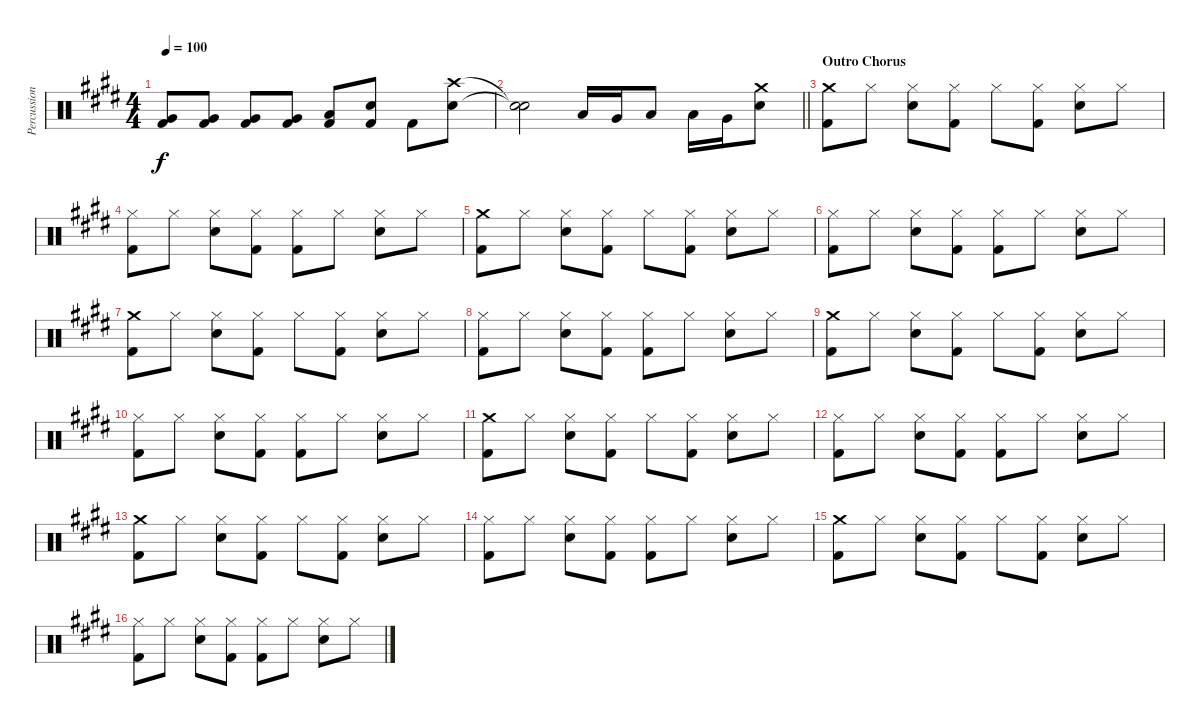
\track ("Percussion" "Percussion") {instrument percussion}
\staff {score}
\articulation defaults
\ts (4 4)
\tempo 100
\clef neutral
\ks c#minor
("Very Low Tom (hit)" "Kick (hit) 2").8{dy f} ("Very Low Tom (hit)" "Kick (hit) 2").8 ("Very Low Tom (hit)" "Kick (hit) 2").8 ("Very Low Tom (hit)" "Kick (hit) 2").8 ("Low Floor Tom (hit)" "Kick (hit) 2").8 ("Snare (hit) 2" "Kick (hit) 2").8 "Kick (hit) 2".8 ("Crash high (hit)" "Snare (hit) 2").8 |
\barLineRight lightlight
("Snare (hit)"{t} "Snare (hit)"{t}).2 "Low Tom (hit)".16 "Very Low Tom (hit)".16 "Low Floor Tom (hit)".8 "Low Tom (hit)".16 "Very Low Tom (hit)".16 ("Crash medium (hit)" "Snare (hit) 2").8 |
\section ("" "Outro Chorus")
("Crash medium (hit)" "Kick (hit) 2").8 "Hi-Hat (closed)".8 ("Hi-Hat (closed)" "Snare (hit) 2").8 ("Hi-Hat (closed)" "Kick (hit) 2").8 "Hi-Hat (closed)".8 ("Hi-Hat (closed)" "Kick (hit) 2").8 ("Hi-Hat (closed)" "Snare (hit) 2").8 "Hi-Hat (closed)".8 |
("Hi-Hat (closed)" "Kick (hit) 2").8 "Hi-Hat (closed)".8 ("Hi-Hat (closed)" "Snare (hit) 2").8 ("Hi-Hat (closed)" "Kick (hit) 2").8 ("Hi-Hat (closed)" "Kick (hit) 2").8 "Hi-Hat (closed)".8 ("Hi-Hat (closed)" "Snare (hit) 2").8 "Hi-Hat (closed)".8 |
("Crash medium (hit)" "Kick (hit) 2").8 "Hi-Hat (closed)".8 ("Hi-Hat (closed)" "Snare (hit) 2").8 ("Hi-Hat (closed)" "Kick (hit) 2").8 "Hi-Hat (closed)".8 ("Hi-Hat (closed)" "Kick (hit) 2").8 ("Hi-Hat (closed)" "Snare (hit) 2").8 "Hi-Hat (closed)".8 |
("Hi-Hat (closed)" "Kick (hit) 2").8 "Hi-Hat (closed)".8 ("Hi-Hat (closed)" "Snare (hit) 2").8 ("Hi-Hat (closed)" "Kick (hit) 2").8 ("Hi-Hat (closed)" "Kick (hit) 2").8 "Hi-Hat (closed)".8 ("Hi-Hat (closed)" "Snare (hit) 2").8 "Hi-Hat (closed)".8 |
("Crash medium (hit)" "Kick (hit) 2").8 "Hi-Hat (closed)".8 ("Hi-Hat (closed)" "Snare (hit) 2").8 ("Hi-Hat (closed)" "Kick (hit) 2").8 "Hi-Hat (closed)".8 ("Hi-Hat (closed)" "Kick (hit) 2").8 ("Hi-Hat (closed)" "Snare (hit) 2").8 "Hi-Hat (closed)".8 |
("Hi-Hat (closed)" "Kick (hit) 2").8 "Hi-Hat (closed)".8 ("Hi-Hat (closed)" "Snare (hit) 2").8 ("Hi-Hat (closed)" "Kick (hit) 2").8 ("Hi-Hat (closed)" "Kick (hit) 2").8 "Hi-Hat (closed)".8 ("Hi-Hat (closed)" "Snare (hit) 2").8 "Hi-Hat (closed)".8 |
("Crash medium (hit)" "Kick (hit) 2").8 "Hi-Hat (closed)".8 ("Hi-Hat (closed)" "Snare (hit) 2").8 ("Hi-Hat (closed)" "Kick (hit) 2").8 "Hi-Hat (closed)".8 ("Hi-Hat (closed)" "Kick (hit) 2").8 ("Hi-Hat (closed)" "Snare (hit) 2").8 "Hi-Hat (closed)".8 |
("Hi-Hat (closed)" "Kick (hit) 2").8 "Hi-Hat (closed)".8 ("Hi-Hat (closed)" "Snare (hit) 2").8 ("Hi-Hat (closed)" "Kick (hit) 2").8 ("Hi-Hat (closed)" "Kick (hit) 2").8 "Hi-Hat (closed)".8 ("Hi-Hat (closed)" "Snare (hit) 2").8 "Hi-Hat (closed)".8 |
("Crash medium (hit)" "Kick (hit) 2").8 "Hi-Hat (closed)".8 ("Hi-Hat (closed)" "Snare (hit) 2").8 ("Hi-Hat (closed)" "Kick (hit) 2").8 "Hi-Hat (closed)".8 ("Hi-Hat (closed)" "Kick (hit) 2").8 ("Hi-Hat (closed)" "Snare (hit) 2").8 "Hi-Hat (closed)".8 |
("Hi-Hat (closed)" "Kick (hit) 2").8 "Hi-Hat (closed)".8 ("Hi-Hat (closed)" "Snare (hit) 2").8 ("Hi-Hat (closed)" "Kick (hit) 2").8 ("Hi-Hat (closed)" "Kick (hit) 2").8 "Hi-Hat (closed)".8 ("Hi-Hat (closed)" "Snare (hit) 2").8 "Hi-Hat (closed)".8 |
("Crash medium (hit)" "Kick (hit) 2").8 "Hi-Hat (closed)".8 ("Hi-Hat (closed)" "Snare (hit) 2").8 ("Hi-Hat (closed)" "Kick (hit) 2").8 "Hi-Hat (closed)".8 ("Hi-Hat (closed)" "Kick (hit) 2").8 ("Hi-Hat (closed)" "Snare (hit) 2").8 "Hi-Hat (closed)".8 |
("Hi-Hat (closed)" "Kick (hit) 2").8 "Hi-Hat (closed)".8 ("Hi-Hat (closed)" "Snare (hit) 2").8 ("Hi-Hat (closed)" "Kick (hit) 2").8 ("Hi-Hat (closed)" "Kick (hit) 2").8 "Hi-Hat (closed)".8 ("Hi-Hat (closed)" "Snare (hit) 2").8 "Hi-Hat (closed)".8 |
("Crash medium (hit)" "Kick (hit) 2").8 "Hi-Hat (closed)".8 ("Hi-Hat (closed)" "Snare (hit) 2").8 ("Hi-Hat (closed)" "Kick (hit) 2").8 "Hi-Hat (closed)".8 ("Hi-Hat (closed)" "Kick (hit) 2").8 ("Hi-Hat (closed)" "Snare (hit) 2").8 "Hi-Hat (closed)".8 |
("Hi-Hat (closed)" "Kick (hit) 2").8 "Hi-Hat (closed)".8 ("Hi-Hat (closed)" "Snare (hit) 2").8 ("Hi-Hat (closed)" "Kick (hit) 2").8 ("Hi-Hat (closed)" "Kick (hit) 2").8 "Hi-Hat (closed)".8 ("Hi-Hat (closed)" "Snare (hit) 2").8 "Hi-Hat (closed)".8
